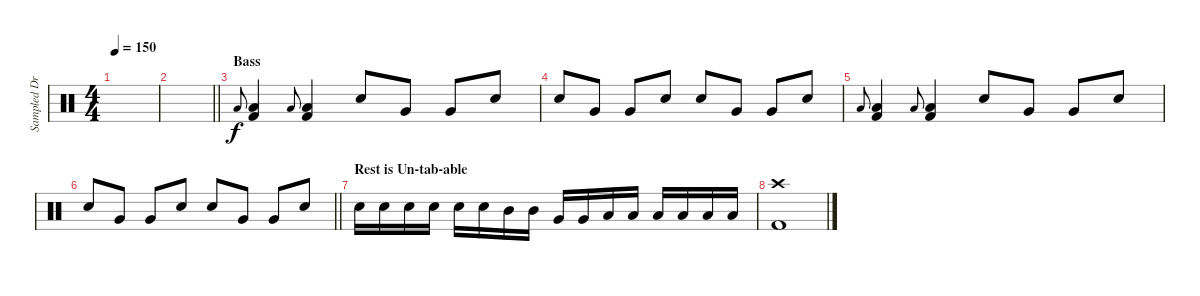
\track ("Sampled Drums" "Sampled Dr") {instrument percussion}
\staff {score}
\articulation defaults
\ts (4 4)
\tempo 150
\clef neutral
\ks c
|
\barLineRight lightlight
|
\section ("" "Bass")
"Low Floor Tom (hit)".8{gr onbeat} ("Low Floor Tom (hit)" "Kick (hit) 2").4 "Low Floor Tom (hit)".8{gr onbeat} ("Low Floor Tom (hit)" "Kick (hit) 2").4 "Electric Snare (hit)".8 "Very Low Tom (hit)".8 "Very Low Tom (hit)".8 "Electric Snare (hit)".8 |
"Electric Snare (hit)".8 "Very Low Tom (hit)".8 "Very Low Tom (hit)".8 "Electric Snare (hit)".8 "Electric Snare (hit)".8 "Very Low Tom (hit)".8 "Very Low Tom (hit)".8 "Electric Snare (hit)".8 |
"Low Floor Tom (hit)".8{gr onbeat} ("Low Floor Tom (hit)" "Kick (hit) 2").4 "Low Floor Tom (hit)".8{gr onbeat} ("Low Floor Tom (hit)" "Kick (hit) 2").4 "Electric Snare (hit)".8 "Very Low Tom (hit)".8 "Very Low Tom (hit)".8 "Electric Snare (hit)".8 |
\barLineRight lightlight "Electric Snare (hit)".8 "Very Low Tom (hit)".8 "Very Low Tom (hit)".8 "Electric Snare (hit)".8 "Electric Snare (hit)".8 "Very Low Tom (hit)".8 "Very Low Tom (hit)".8 "Electric Snare (hit)".8
|
\section ("" "Rest is Un-tab-able")
"Electric Snare (hit)".16 "Electric Snare (hit)".16 "Electric Snare (hit)".16 "Electric Snare (hit)".16 "Electric Snare (hit)".16 "Electric Snare (hit)".16 "Mid Tom (hit)".16 "Mid Tom (hit)".16 "Very Low Tom (hit)".16 "Very Low Tom (hit)".16 "Low Floor Tom (hit)".16 "Low Floor Tom (hit)".16 "Low Floor Tom (hit)".16 "Low Floor Tom (hit)".16 "Low Floor Tom (hit)".16 "Low Floor Tom (hit)".16 |
("Crash high (hit)" "Kick (hit) 2").1
